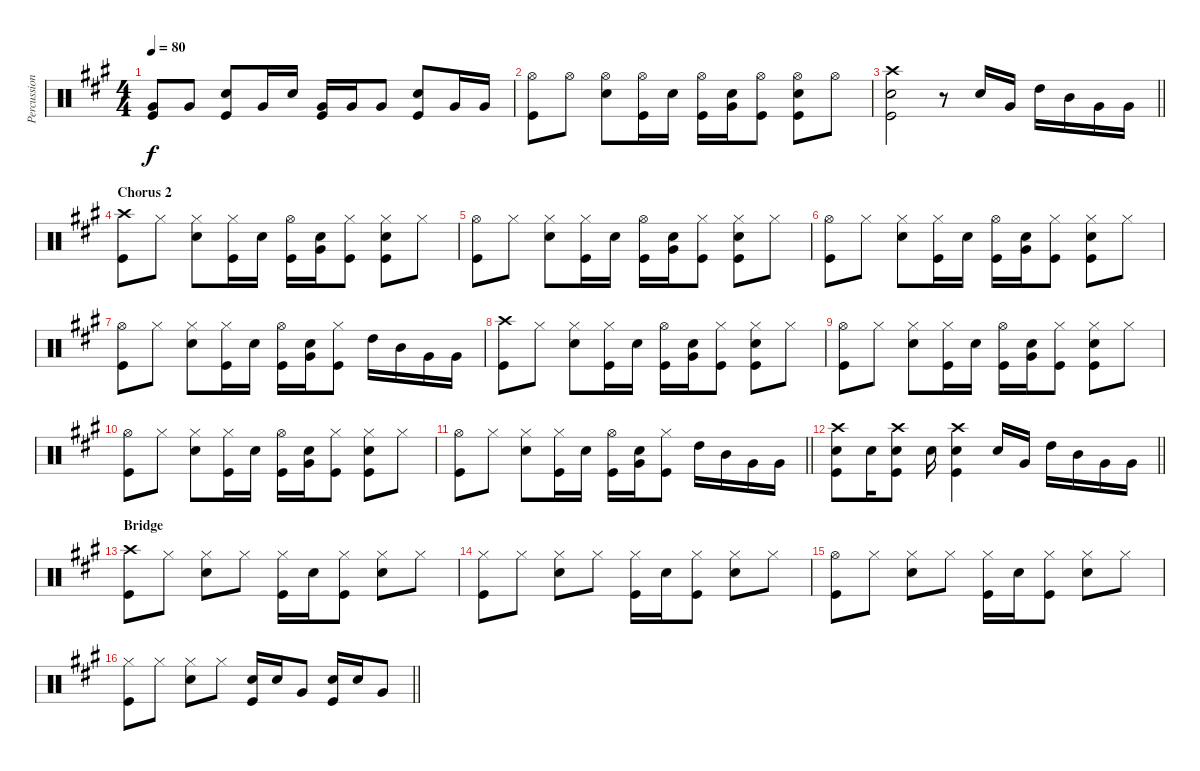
\track ("Percussion" "Percussion") {instrument percussion bank 47}
\staff {score}
\articulation defaults
\ts (4 4)
\tempo 80
\clef neutral
\ks a
("Very Low Tom (hit)" "Kick (hit)").8{dy f} "Very Low Tom (hit)".8 ("Snare (hit) 2" "Kick (hit)").8 "Very Low Tom (hit)".16 "Snare (hit) 2".16 ("Very Low Tom (hit)" "Kick (hit)").16 "Very Low Tom (hit)".16 "Very Low Tom (hit)".8 ("Snare (hit) 2" "Kick (hit)").8 "Very Low Tom (hit)".16 "Very Low Tom (hit)".16 |
("Hi-Hat (open)" "Kick (hit)").8 "Hi-Hat (open)".8 ("Hi-Hat (open)" "Snare (hit) 2").8 ("Hi-Hat (open)" "Kick (hit)").16 "Snare (hit) 2".16 ("Hi-Hat (open)" "Kick (hit)").16 ("Very Low Tom (hit)" "Snare (hit) 2").16 ("Hi-Hat (open)" "Kick (hit)").8 ("Hi-Hat (open)" "Snare (hit) 2" "Kick (hit)").8 "Hi-Hat (open)".8 |
\barLineRight lightlight
("Crash high (hit)" "Snare (hit) 2" "Kick (hit)").2 r.8 "Snare (hit) 2".16 "Very Low Tom (hit)".16 "High Tom (hit)".16 "Mid Tom (hit)".16 "Very Low Tom (hit)".16 "Very Low Tom (hit)".16 |
\section ("" "Chorus 2")
("Crash high (hit)" "Kick (hit)").8 "Hi-Hat (closed)".8 ("Hi-Hat (closed)" "Snare (hit) 2").8 ("Hi-Hat (closed)" "Kick (hit)").16 "Snare (hit) 2".16 ("Hi-Hat (open)" "Kick (hit)").16 ("Very Low Tom (hit)" "Snare (hit) 2").16 ("Hi-Hat (closed)" "Kick (hit)").8 ("Hi-Hat (closed)" "Snare (hit) 2" "Kick (hit)").8 "Hi-Hat (closed)".8 |
("Hi-Hat (open)" "Kick (hit)").8 "Hi-Hat (closed)".8 ("Hi-Hat (closed)" "Snare (hit) 2").8 ("Hi-Hat (closed)" "Kick (hit)").16 "Snare (hit) 2".16 ("Hi-Hat (open)" "Kick (hit)").16 ("Very Low Tom (hit)" "Snare (hit) 2").16 ("Hi-Hat (closed)" "Kick (hit)").8 ("Hi-Hat (closed)" "Snare (hit) 2" "Kick (hit)").8 "Hi-Hat (closed)".8 |
("Hi-Hat (open)" "Kick (hit)").8 "Hi-Hat (closed)".8 ("Hi-Hat (closed)" "Snare (hit) 2").8 ("Hi-Hat (closed)" "Kick (hit)").16 "Snare (hit) 2".16 ("Hi-Hat (open)" "Kick (hit)").16 ("Very Low Tom (hit)" "Snare (hit) 2").16 ("Hi-Hat (closed)" "Kick (hit)").8 ("Hi-Hat (closed)" "Snare (hit) 2" "Kick (hit)").8 "Hi-Hat (closed)".8 |
("Hi-Hat (open)" "Kick (hit)").8 "Hi-Hat (closed)".8 ("Hi-Hat (closed)" "Snare (hit) 2").8 ("Hi-Hat (closed)" "Kick (hit)").16 "Snare (hit) 2".16 ("Hi-Hat (open)" "Kick (hit)").16 ("Very Low Tom (hit)" "Snare (hit) 2").16 ("Hi-Hat (closed)" "Kick (hit)").8 "High Tom (hit)".16 "Mid Tom (hit)".16 "Very Low Tom (hit)".16 "Very Low Tom (hit)".16 |
("Crash high (hit)" "Kick (hit)").8 "Hi-Hat (closed)".8 ("Hi-Hat (closed)" "Snare (hit) 2").8 ("Hi-Hat (closed)" "Kick (hit)").16 "Snare (hit) 2".16 ("Hi-Hat (open)" "Kick (hit)").16 ("Very Low Tom (hit)" "Snare (hit) 2").16 ("Hi-Hat (closed)" "Kick (hit)").8 ("Hi-Hat (closed)" "Snare (hit) 2" "Kick (hit)").8 "Hi-Hat (closed)".8 |
("Hi-Hat (open)" "Kick (hit)").8 "Hi-Hat (closed)".8 ("Hi-Hat (closed)" "Snare (hit) 2").8 ("Hi-Hat (closed)" "Kick (hit)").16 "Snare (hit) 2".16 ("Hi-Hat (open)" "Kick (hit)").16 ("Very Low Tom (hit)" "Snare (hit) 2").16 ("Hi-Hat (closed)" "Kick (hit)").8 ("Hi-Hat (closed)" "Snare (hit) 2" "Kick (hit)").8 "Hi-Hat (closed)".8 |
("Hi-Hat (open)" "Kick (hit)").8 "Hi-Hat (closed)".8 ("Hi-Hat (closed)" "Snare (hit) 2").8 ("Hi-Hat (closed)" "Kick (hit)").16 "Snare (hit) 2".16 ("Hi-Hat (open)" "Kick (hit)").16 ("Very Low Tom (hit)" "Snare (hit) 2").16 ("Hi-Hat (closed)" "Kick (hit)").8 ("Hi-Hat (closed)" "Snare (hit) 2" "Kick (hit)").8 "Hi-Hat (closed)".8 |
\barLineRight lightlight
("Hi-Hat (open)" "Kick (hit)").8 "Hi-Hat (closed)".8 ("Hi-Hat (closed)" "Snare (hit) 2").8 ("Hi-Hat (closed)" "Kick (hit)").16 "Snare (hit) 2".16 ("Hi-Hat (open)" "Kick (hit)").16 ("Very Low Tom (hit)" "Snare (hit) 2").16 ("Hi-Hat (closed)" "Kick (hit)").8 "High Tom (hit)".16 "Mid Tom (hit)".16 "Very Low Tom (hit)".16 "Very Low Tom (hit)".16 |
\barLineRight lightlight
("Crash high (hit)" "Snare (hit) 2" "Kick (hit)").8 "Snare (hit) 2".16 ("Crash high (hit)" "Snare (hit) 2" "Kick (hit)").8 "Snare (hit) 2".16 ("Crash high (hit)" "Snare (hit) 2" "Kick (hit)").4 "Snare (hit) 2".16 "Very Low Tom (hit)".16 "High Tom (hit)".16 "Mid Tom (hit)".16 "Very Low Tom (hit)".16 "Very Low Tom (hit)".16 |
\section ("" "Bridge")
("Crash high (hit)" "Kick (hit)").8 "Hi-Hat (closed)".8 ("Hi-Hat (closed)" "Snare (hit) 2").8 "Hi-Hat (closed)".8 ("Hi-Hat (closed)" "Kick (hit)").16 "Snare (hit) 2".16 ("Hi-Hat (closed)" "Kick (hit)").8 ("Hi-Hat (closed)" "Snare (hit) 2").8 "Hi-Hat (closed)".8 |
("Hi-Hat (closed)" "Kick (hit)").8 "Hi-Hat (closed)".8 ("Hi-Hat (closed)" "Snare (hit) 2").8 "Hi-Hat (closed)".8 ("Hi-Hat (closed)" "Kick (hit)").16 "Snare (hit) 2".16 ("Hi-Hat (closed)" "Kick (hit)").8 ("Hi-Hat (closed)" "Snare (hit) 2").8 "Hi-Hat (closed)".8 |
("Hi-Hat (open)" "Kick (hit)").8 "Hi-Hat (closed)".8 ("Hi-Hat (closed)" "Snare (hit) 2").8 "Hi-Hat (closed)".8 ("Hi-Hat (closed)" "Kick (hit)").16 "Snare (hit) 2".16 ("Hi-Hat (closed)" "Kick (hit)").8 ("Hi-Hat (closed)" "Snare (hit) 2").8 "Hi-Hat (closed)".8 |
\barLineRight lightlight
("Hi-Hat (closed)" "Kick (hit)").8 "Hi-Hat (closed)".8 ("Hi-Hat (closed)" "Snare (hit) 2").8 "Hi-Hat (closed)".8 ("Snare (hit) 2" "Kick (hit)").16 "Snare (hit) 2".16 "Very Low Tom (hit)".8 ("Snare (hit) 2" "Kick (hit)").16 "Snare (hit) 2".16 "Very Low Tom (hit)".8
